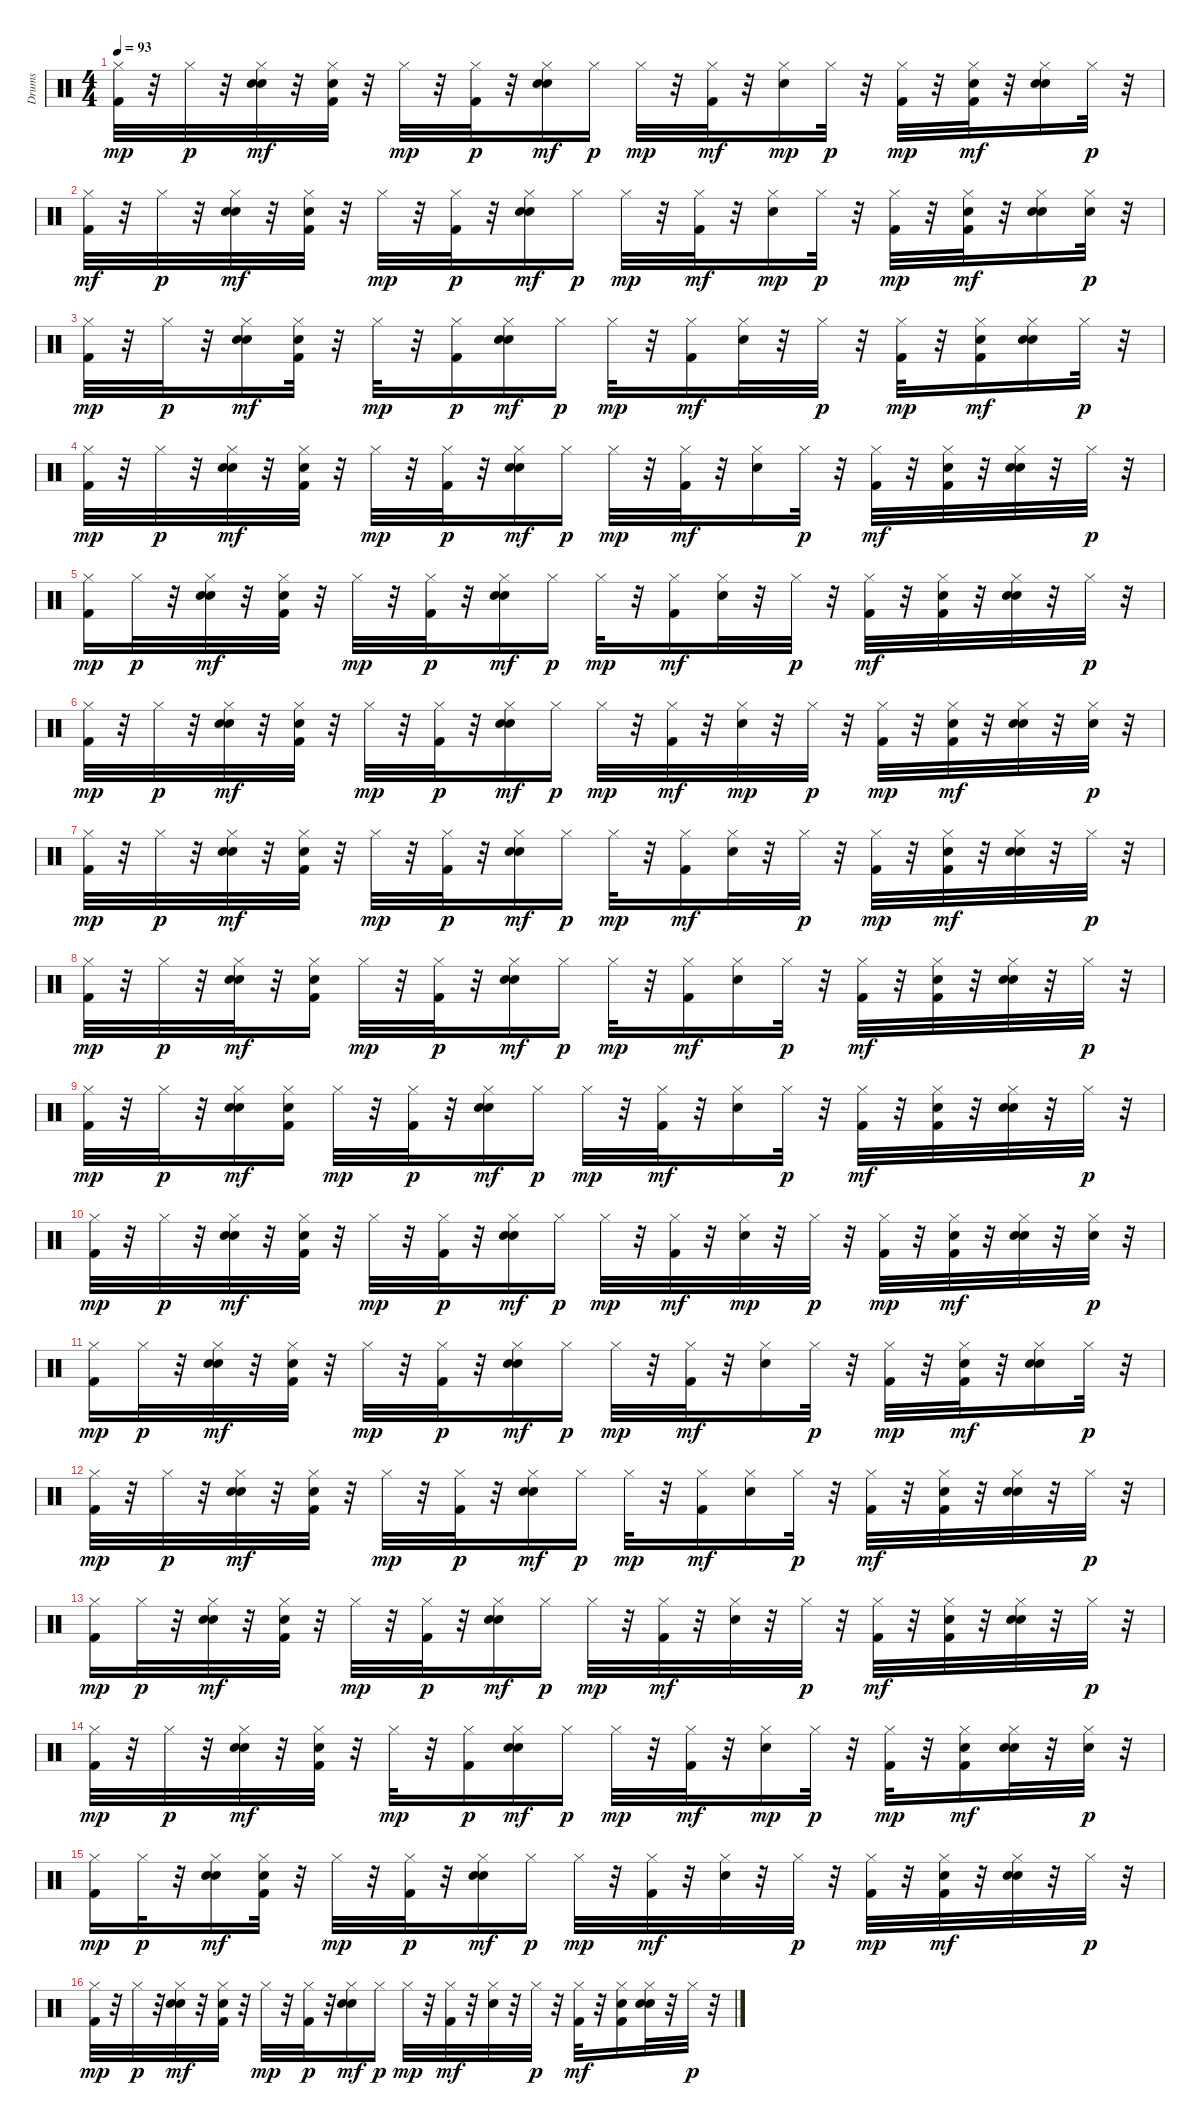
\track ("Drums" "Drums") {instrument percussion}
\staff {score}
\articulation defaults
\ts (4 4)
\tempo 93
\clef neutral
\ks c
("Kick (hit) 2" "Hi-Hat (closed)").32{dy mp} r.32 "Hi-Hat (closed)".32{dy p} r.32 ("Electric Snare (hit)" "Hi-Hat (closed)" "Hand Clap (hit)").32{dy mf} r.32 ("Hi-Hat (closed)" "Hand Clap (hit)" "Kick (hit) 2").32 r.32 "Hi-Hat (closed)".32{dy mp} r.32 ("Kick (hit) 2" "Hi-Hat (closed)").32{dy p} r.32 ("Hi-Hat (closed)" "Hand Clap (hit)" "Electric Snare (hit)").16{dy mf} "Hi-Hat (closed)".16{dy p} "Hi-Hat (closed)".32{dy mp} r.32 ("Hi-Hat (closed)" "Kick (hit) 2").32{dy mf} r.32 ("Electric Snare (hit)" "Hi-Hat (closed)").16{dy mp} "Hi-Hat (closed)".32{dy p} r.32 ("Kick (hit) 2" "Hi-Hat (closed)").32{dy mp} r.32 ("Hand Clap (hit)" "Hi-Hat (closed)" "Kick (hit) 2").32{dy mf} r.32 ("Hand Clap (hit)" "Hi-Hat (closed)" "Electric Snare (hit)").16 "Hi-Hat (closed)".32{dy p} r.32 |
("Hi-Hat (closed)" "Kick (hit) 2").32{dy mf} r.32 "Hi-Hat (closed)".32{dy p} r.32 ("Hand Clap (hit)" "Hi-Hat (closed)" "Electric Snare (hit)").32{dy mf} r.32 ("Hi-Hat (closed)" "Hand Clap (hit)" "Kick (hit) 2").32 r.32 "Hi-Hat (closed)".32{dy mp} r.32 ("Kick (hit) 2" "Hi-Hat (closed)").32{dy p} r.32 ("Hi-Hat (closed)" "Electric Snare (hit)" "Hand Clap (hit)").16{dy mf} "Hi-Hat (closed)".16{dy p} "Hi-Hat (closed)".32{dy mp} r.32 ("Hi-Hat (closed)" "Kick (hit) 2").32{dy mf} r.32 ("Electric Snare (hit)" "Hi-Hat (closed)").16{dy mp} "Hi-Hat (closed)".32{dy p} r.32 ("Kick (hit) 2" "Hi-Hat (closed)").32{dy mp} r.32 ("Hand Clap (hit)" "Hi-Hat (closed)" "Kick (hit) 2").32{dy mf} r.32 ("Electric Snare (hit)" "Hi-Hat (closed)" "Hand Clap (hit)").16 ("Electric Snare (hit)" "Hi-Hat (closed)").32{dy p} r.32 |
("Kick (hit) 2" "Hi-Hat (closed)").32{dy mp} r.32 "Hi-Hat (closed)".32{dy p} r.32 ("Electric Snare (hit)" "Hi-Hat (closed)" "Hand Clap (hit)").16{dy mf} ("Hand Clap (hit)" "Hi-Hat (closed)" "Kick (hit) 2").32 r.32 "Hi-Hat (closed)".32{dy mp} r.32 ("Kick (hit) 2" "Hi-Hat (closed)").16{dy p} ("Hand Clap (hit)" "Hi-Hat (closed)" "Electric Snare (hit)").16{dy mf} "Hi-Hat (closed)".16{dy p} "Hi-Hat (closed)".32{dy mp} r.32 ("Hi-Hat (closed)" "Kick (hit) 2").16{dy mf} ("Hi-Hat (closed)" "Electric Snare (hit)").32 r.32 "Hi-Hat (closed)".32{dy p} r.32 ("Kick (hit) 2" "Hi-Hat (closed)").32{dy mp} r.32 ("Hand Clap (hit)" "Hi-Hat (closed)" "Kick (hit) 2").16{dy mf} ("Hi-Hat (closed)" "Hand Clap (hit)" "Electric Snare (hit)").16 "Hi-Hat (closed)".32{dy p} r.32 |
("Kick (hit) 2" "Hi-Hat (closed)").32{dy mp} r.32 "Hi-Hat (closed)".32{dy p} r.32 ("Electric Snare (hit)" "Hi-Hat (closed)" "Hand Clap (hit)").32{dy mf} r.32 ("Hand Clap (hit)" "Hi-Hat (closed)" "Kick (hit) 2").32 r.32 "Hi-Hat (closed)".32{dy mp} r.32 ("Kick (hit) 2" "Hi-Hat (closed)").32{dy p} r.32 ("Hand Clap (hit)" "Hi-Hat (closed)" "Electric Snare (hit)").16{dy mf} "Hi-Hat (closed)".16{dy p} "Hi-Hat (closed)".32{dy mp} r.32 ("Hi-Hat (closed)" "Kick (hit) 2").32{dy mf} r.32 ("Hi-Hat (closed)" "Electric Snare (hit)").16 "Hi-Hat (closed)".32{dy p} r.32 ("Hi-Hat (closed)" "Kick (hit) 2").32{dy mf} r.32 ("Hand Clap (hit)" "Hi-Hat (closed)" "Kick (hit) 2").32 r.32 ("Hi-Hat (closed)" "Hand Clap (hit)" "Electric Snare (hit)").32 r.32 "Hi-Hat (closed)".32{dy p} r.32 |
("Kick (hit) 2" "Hi-Hat (closed)").16{dy mp} "Hi-Hat (closed)".32{dy p} r.32 ("Electric Snare (hit)" "Hi-Hat (closed)" "Hand Clap (hit)").32{dy mf} r.32 ("Hand Clap (hit)" "Hi-Hat (closed)" "Kick (hit) 2").32 r.32 "Hi-Hat (closed)".32{dy mp} r.32 ("Kick (hit) 2" "Hi-Hat (closed)").32{dy p} r.32 ("Hand Clap (hit)" "Hi-Hat (closed)" "Electric Snare (hit)").16{dy mf} "Hi-Hat (closed)".16{dy p} "Hi-Hat (closed)".32{dy mp} r.32 ("Hi-Hat (closed)" "Kick (hit) 2").16{dy mf} ("Hi-Hat (closed)" "Electric Snare (hit)").32 r.32 "Hi-Hat (closed)".32{dy p} r.32 ("Hi-Hat (closed)" "Kick (hit) 2").32{dy mf} r.32 ("Hi-Hat (closed)" "Hand Clap (hit)" "Kick (hit) 2").32 r.32 ("Hi-Hat (closed)" "Hand Clap (hit)" "Electric Snare (hit)").32 r.32 "Hi-Hat (closed)".32{dy p} r.32 |
("Kick (hit) 2" "Hi-Hat (closed)").32{dy mp} r.32 "Hi-Hat (closed)".32{dy p} r.32 ("Hand Clap (hit)" "Hi-Hat (closed)" "Electric Snare (hit)").32{dy mf} r.32 ("Hi-Hat (closed)" "Hand Clap (hit)" "Kick (hit) 2").32 r.32 "Hi-Hat (closed)".32{dy mp} r.32 ("Kick (hit) 2" "Hi-Hat (closed)").32{dy p} r.32 ("Hi-Hat (closed)" "Electric Snare (hit)" "Hand Clap (hit)").16{dy mf} "Hi-Hat (closed)".16{dy p} "Hi-Hat (closed)".32{dy mp} r.32 ("Hi-Hat (closed)" "Kick (hit) 2").32{dy mf} r.32 ("Electric Snare (hit)" "Hi-Hat (closed)").32{dy mp} r.32 "Hi-Hat (closed)".32{dy p} r.32 ("Kick (hit) 2" "Hi-Hat (closed)").32{dy mp} r.32 ("Kick (hit) 2" "Hi-Hat (closed)" "Hand Clap (hit)").32{dy mf} r.32 ("Hand Clap (hit)" "Hi-Hat (closed)" "Electric Snare (hit)").32 r.32 ("Electric Snare (hit)" "Hi-Hat (closed)").32{dy p} r.32 |
("Kick (hit) 2" "Hi-Hat (closed)").32{dy mp} r.32 "Hi-Hat (closed)".32{dy p} r.32 ("Electric Snare (hit)" "Hi-Hat (closed)" "Hand Clap (hit)").32{dy mf} r.32 ("Hand Clap (hit)" "Hi-Hat (closed)" "Kick (hit) 2").32 r.32 "Hi-Hat (closed)".32{dy mp} r.32 ("Kick (hit) 2" "Hi-Hat (closed)").32{dy p} r.32 ("Hand Clap (hit)" "Hi-Hat (closed)" "Electric Snare (hit)").16{dy mf} "Hi-Hat (closed)".16{dy p} "Hi-Hat (closed)".32{dy mp} r.32 ("Hi-Hat (closed)" "Kick (hit) 2").16{dy mf} ("Hi-Hat (closed)" "Electric Snare (hit)").32 r.32 "Hi-Hat (closed)".32{dy p} r.32 ("Kick (hit) 2" "Hi-Hat (closed)").32{dy mp} r.32 ("Hand Clap (hit)" "Hi-Hat (closed)" "Kick (hit) 2").32{dy mf} r.32 ("Hi-Hat (closed)" "Hand Clap (hit)" "Electric Snare (hit)").32 r.32 "Hi-Hat (closed)".32{dy p} r.32 |
("Kick (hit) 2" "Hi-Hat (closed)").32{dy mp} r.32 "Hi-Hat (closed)".32{dy p} r.32 ("Electric Snare (hit)" "Hi-Hat (closed)" "Hand Clap (hit)").32{dy mf} r.32 ("Hand Clap (hit)" "Hi-Hat (closed)" "Kick (hit) 2").16 "Hi-Hat (closed)".32{dy mp} r.32 ("Kick (hit) 2" "Hi-Hat (closed)").32{dy p} r.32 ("Hand Clap (hit)" "Hi-Hat (closed)" "Electric Snare (hit)").16{dy mf} "Hi-Hat (closed)".16{dy p} "Hi-Hat (closed)".32{dy mp} r.32 ("Hi-Hat (closed)" "Kick (hit) 2").16{dy mf} ("Hi-Hat (closed)" "Electric Snare (hit)").16 "Hi-Hat (closed)".32{dy p} r.32 ("Hi-Hat (closed)" "Kick (hit) 2").32{dy mf} r.32 ("Hand Clap (hit)" "Hi-Hat (closed)" "Kick (hit) 2").32 r.32 ("Hi-Hat (closed)" "Hand Clap (hit)" "Electric Snare (hit)").32 r.32 "Hi-Hat (closed)".32{dy p} r.32 |
("Kick (hit) 2" "Hi-Hat (closed)").32{dy mp} r.32 "Hi-Hat (closed)".32{dy p} r.32 ("Electric Snare (hit)" "Hi-Hat (closed)" "Hand Clap (hit)").16{dy mf} ("Hand Clap (hit)" "Hi-Hat (closed)" "Kick (hit) 2").16 "Hi-Hat (closed)".32{dy mp} r.32 ("Kick (hit) 2" "Hi-Hat (closed)").32{dy p} r.32 ("Hand Clap (hit)" "Hi-Hat (closed)" "Electric Snare (hit)").16{dy mf} "Hi-Hat (closed)".16{dy p} "Hi-Hat (closed)".32{dy mp} r.32 ("Hi-Hat (closed)" "Kick (hit) 2").32{dy mf} r.32 ("Hi-Hat (closed)" "Electric Snare (hit)").16 "Hi-Hat (closed)".32{dy p} r.32 ("Hi-Hat (closed)" "Kick (hit) 2").32{dy mf} r.32 ("Hi-Hat (closed)" "Hand Clap (hit)" "Kick (hit) 2").32 r.32 ("Hi-Hat (closed)" "Hand Clap (hit)" "Electric Snare (hit)").32 r.32 "Hi-Hat (closed)".32{dy p} r.32 |
("Kick (hit) 2" "Hi-Hat (closed)").32{dy mp} r.32 "Hi-Hat (closed)".32{dy p} r.32 ("Hand Clap (hit)" "Hi-Hat (closed)" "Electric Snare (hit)").32{dy mf} r.32 ("Hi-Hat (closed)" "Hand Clap (hit)" "Kick (hit) 2").32 r.32 "Hi-Hat (closed)".32{dy mp} r.32 ("Kick (hit) 2" "Hi-Hat (closed)").32{dy p} r.32 ("Hi-Hat (closed)" "Electric Snare (hit)" "Hand Clap (hit)").16{dy mf} "Hi-Hat (closed)".16{dy p} "Hi-Hat (closed)".32{dy mp} r.32 ("Hi-Hat (closed)" "Kick (hit) 2").32{dy mf} r.32 ("Electric Snare (hit)" "Hi-Hat (closed)").32{dy mp} r.32 "Hi-Hat (closed)".32{dy p} r.32 ("Kick (hit) 2" "Hi-Hat (closed)").32{dy mp} r.32 ("Kick (hit) 2" "Hi-Hat (closed)" "Hand Clap (hit)").32{dy mf} r.32 ("Hand Clap (hit)" "Hi-Hat (closed)" "Electric Snare (hit)").32 r.32 ("Electric Snare (hit)" "Hi-Hat (closed)").32{dy p} r.32 |
("Kick (hit) 2" "Hi-Hat (closed)").16{dy mp} "Hi-Hat (closed)".32{dy p} r.32 ("Electric Snare (hit)" "Hi-Hat (closed)" "Hand Clap (hit)").32{dy mf} r.32 ("Hand Clap (hit)" "Hi-Hat (closed)" "Kick (hit) 2").32 r.32 "Hi-Hat (closed)".32{dy mp} r.32 ("Kick (hit) 2" "Hi-Hat (closed)").32{dy p} r.32 ("Hand Clap (hit)" "Hi-Hat (closed)" "Electric Snare (hit)").16{dy mf} "Hi-Hat (closed)".16{dy p} "Hi-Hat (closed)".32{dy mp} r.32 ("Hi-Hat (closed)" "Kick (hit) 2").32{dy mf} r.32 ("Hi-Hat (closed)" "Electric Snare (hit)").16 "Hi-Hat (closed)".32{dy p} r.32 ("Kick (hit) 2" "Hi-Hat (closed)").32{dy mp} r.32 ("Hand Clap (hit)" "Hi-Hat (closed)" "Kick (hit) 2").32{dy mf} r.32 ("Hi-Hat (closed)" "Hand Clap (hit)" "Electric Snare (hit)").16 "Hi-Hat (closed)".32{dy p} r.32 |
("Kick (hit) 2" "Hi-Hat (closed)").32{dy mp} r.32 "Hi-Hat (closed)".32{dy p} r.32 ("Electric Snare (hit)" "Hi-Hat (closed)" "Hand Clap (hit)").32{dy mf} r.32 ("Hand Clap (hit)" "Hi-Hat (closed)" "Kick (hit) 2").32 r.32 "Hi-Hat (closed)".32{dy mp} r.32 ("Kick (hit) 2" "Hi-Hat (closed)").32{dy p} r.32 ("Hand Clap (hit)" "Hi-Hat (closed)" "Electric Snare (hit)").16{dy mf} "Hi-Hat (closed)".16{dy p} "Hi-Hat (closed)".32{dy mp} r.32 ("Hi-Hat (closed)" "Kick (hit) 2").16{dy mf} ("Hi-Hat (closed)" "Electric Snare (hit)").16 "Hi-Hat (closed)".32{dy p} r.32 ("Hi-Hat (closed)" "Kick (hit) 2").32{dy mf} r.32 ("Hand Clap (hit)" "Hi-Hat (closed)" "Kick (hit) 2").32 r.32 ("Hi-Hat (closed)" "Hand Clap (hit)" "Electric Snare (hit)").32 r.32 "Hi-Hat (closed)".32{dy p} r.32 |
("Kick (hit) 2" "Hi-Hat (closed)").16{dy mp} "Hi-Hat (closed)".32{dy p} r.32 ("Electric Snare (hit)" "Hi-Hat (closed)" "Hand Clap (hit)").32{dy mf} r.32 ("Hand Clap (hit)" "Hi-Hat (closed)" "Kick (hit) 2").32 r.32 "Hi-Hat (closed)".32{dy mp} r.32 ("Kick (hit) 2" "Hi-Hat (closed)").32{dy p} r.32 ("Hand Clap (hit)" "Hi-Hat (closed)" "Electric Snare (hit)").16{dy mf} "Hi-Hat (closed)".16{dy p} "Hi-Hat (closed)".32{dy mp} r.32 ("Hi-Hat (closed)" "Kick (hit) 2").32{dy mf} r.32 ("Hi-Hat (closed)" "Electric Snare (hit)").32 r.32 "Hi-Hat (closed)".32{dy p} r.32 ("Hi-Hat (closed)" "Kick (hit) 2").32{dy mf} r.32 ("Hi-Hat (closed)" "Hand Clap (hit)" "Kick (hit) 2").32 r.32 ("Hi-Hat (closed)" "Hand Clap (hit)" "Electric Snare (hit)").32 r.32 "Hi-Hat (closed)".32{dy p} r.32 |
("Kick (hit) 2" "Hi-Hat (closed)").32{dy mp} r.32 "Hi-Hat (closed)".32{dy p} r.32 ("Hand Clap (hit)" "Hi-Hat (closed)" "Electric Snare (hit)").32{dy mf} r.32 ("Hi-Hat (closed)" "Hand Clap (hit)" "Kick (hit) 2").32 r.32 "Hi-Hat (closed)".32{dy mp} r.32 ("Kick (hit) 2" "Hi-Hat (closed)").16{dy p} ("Hi-Hat (closed)" "Electric Snare (hit)" "Hand Clap (hit)").16{dy mf} "Hi-Hat (closed)".16{dy p} "Hi-Hat (closed)".32{dy mp} r.32 ("Hi-Hat (closed)" "Kick (hit) 2").32{dy mf} r.32 ("Electric Snare (hit)" "Hi-Hat (closed)").16{dy mp} "Hi-Hat (closed)".32{dy p} r.32 ("Kick (hit) 2" "Hi-Hat (closed)").32{dy mp} r.32 ("Kick (hit) 2" "Hi-Hat (closed)" "Hand Clap (hit)").16{dy mf} ("Hand Clap (hit)" "Hi-Hat (closed)" "Electric Snare (hit)").32 r.32 ("Electric Snare (hit)" "Hi-Hat (closed)").32{dy p} r.32 |
("Kick (hit) 2" "Hi-Hat (closed)").16{dy mp} "Hi-Hat (closed)".32{dy p} r.32 ("Electric Snare (hit)" "Hi-Hat (closed)" "Hand Clap (hit)").16{dy mf} ("Hand Clap (hit)" "Hi-Hat (closed)" "Kick (hit) 2").32 r.32 "Hi-Hat (closed)".32{dy mp} r.32 ("Kick (hit) 2" "Hi-Hat (closed)").32{dy p} r.32 ("Hand Clap (hit)" "Hi-Hat (closed)" "Electric Snare (hit)").16{dy mf} "Hi-Hat (closed)".16{dy p} "Hi-Hat (closed)".32{dy mp} r.32 ("Hi-Hat (closed)" "Kick (hit) 2").32{dy mf} r.32 ("Hi-Hat (closed)" "Electric Snare (hit)").32 r.32 "Hi-Hat (closed)".32{dy p} r.32 ("Kick (hit) 2" "Hi-Hat (closed)").32{dy mp} r.32 ("Hand Clap (hit)" "Hi-Hat (closed)" "Kick (hit) 2").32{dy mf} r.32 ("Hi-Hat (closed)" "Hand Clap (hit)" "Electric Snare (hit)").32 r.32 "Hi-Hat (closed)".32{dy p} r.32 |
("Kick (hit) 2" "Hi-Hat (closed)").32{dy mp} r.32 "Hi-Hat (closed)".32{dy p} r.32 ("Electric Snare (hit)" "Hi-Hat (closed)" "Hand Clap (hit)").32{dy mf} r.32 ("Hand Clap (hit)" "Hi-Hat (closed)" "Kick (hit) 2").32 r.32 "Hi-Hat (closed)".32{dy mp} r.32 ("Kick (hit) 2" "Hi-Hat (closed)").32{dy p} r.32 ("Hand Clap (hit)" "Hi-Hat (closed)" "Electric Snare (hit)").16{dy mf} "Hi-Hat (closed)".16{dy p} "Hi-Hat (closed)".32{dy mp} r.32 ("Hi-Hat (closed)" "Kick (hit) 2").32{dy mf} r.32 ("Hi-Hat (closed)" "Electric Snare (hit)").32 r.32 "Hi-Hat (closed)".32{dy p} r.32 ("Hi-Hat (closed)" "Kick (hit) 2").32{dy mf} r.32 ("Hand Clap (hit)" "Hi-Hat (closed)" "Kick (hit) 2").16 ("Hi-Hat (closed)" "Hand Clap (hit)" "Electric Snare (hit)").32 r.32 "Hi-Hat (closed)".32{dy p} r.32
